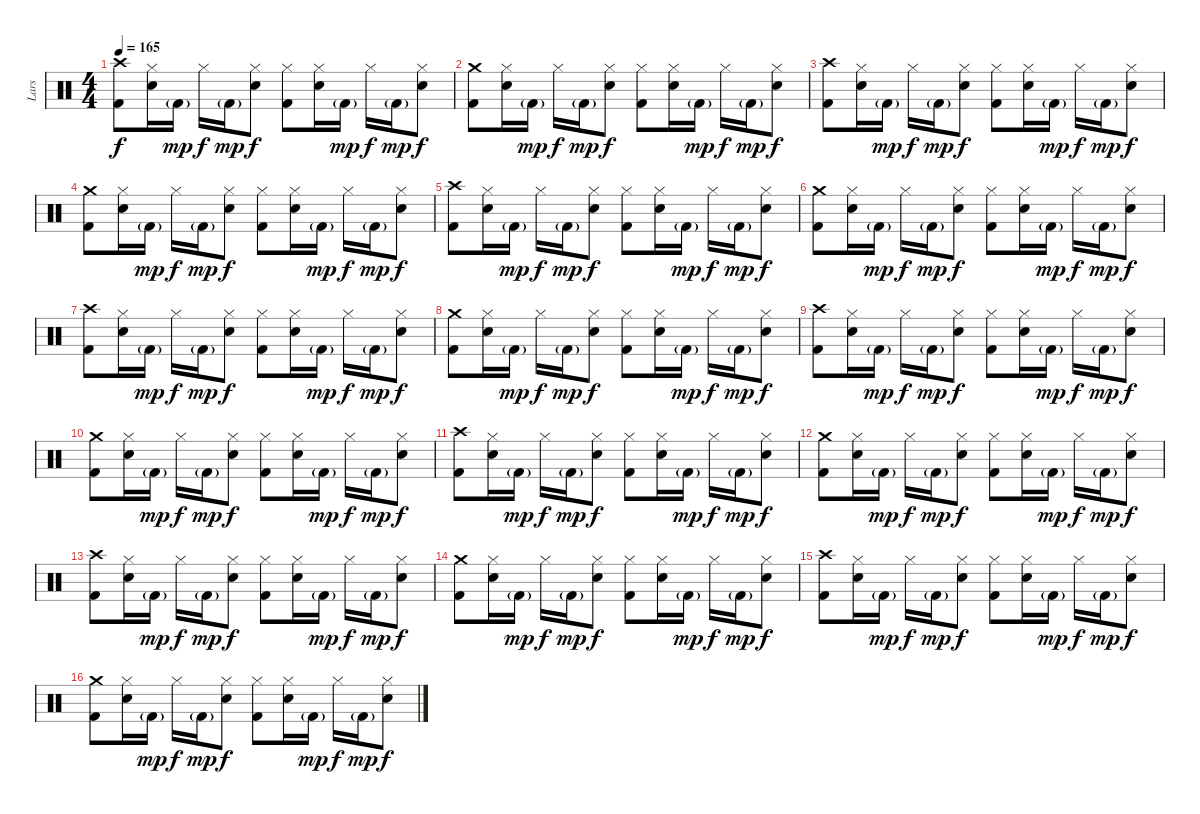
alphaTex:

\track ("Lars" "Lars") {instrument percussion}
\staff {score}
\articulation defaults
\ts (4 4)
\tempo 165
\clef neutral
\ks c
("Crash high (hit)" "Kick (hit) 2").8{dy f} ("Hi-Hat (closed)" "Snare (hit) 2").16 "Kick (hit) 2"{g}.16{dy mp} "Hi-Hat (closed)".16{dy f} "Kick (hit) 2"{g}.16{dy mp} ("Hi-Hat (closed)" "Snare (hit) 2").8{dy f} ("Hi-Hat (closed)" "Kick (hit) 2").8 ("Hi-Hat (closed)" "Snare (hit) 2").16 "Kick (hit) 2"{g}.16{dy mp} "Hi-Hat (closed)".16{dy f} "Kick (hit) 2"{g}.16{dy mp} ("Hi-Hat (closed)" "Snare (hit) 2").8{dy f} |
("Crash medium (hit)" "Kick (hit) 2").8 ("Hi-Hat (closed)" "Snare (hit) 2").16 "Kick (hit) 2"{g}.16{dy mp} "Hi-Hat (closed)".16{dy f} "Kick (hit) 2"{g}.16{dy mp} ("Hi-Hat (closed)" "Snare (hit) 2").8{dy f} ("Hi-Hat (closed)" "Kick (hit) 2").8 ("Hi-Hat (closed)" "Snare (hit) 2").16 "Kick (hit) 2"{g}.16{dy mp} "Hi-Hat (closed)".16{dy f} "Kick (hit) 2"{g}.16{dy mp} ("Hi-Hat (closed)" "Snare (hit) 2").8{dy f} |
("Crash high (hit)" "Kick (hit) 2").8 ("Hi-Hat (closed)" "Snare (hit) 2").16 "Kick (hit) 2"{g}.16{dy mp} "Hi-Hat (closed)".16{dy f} "Kick (hit) 2"{g}.16{dy mp} ("Hi-Hat (closed)" "Snare (hit) 2").8{dy f} ("Hi-Hat (closed)" "Kick (hit) 2").8 ("Hi-Hat (closed)" "Snare (hit) 2").16 "Kick (hit) 2"{g}.16{dy mp} "Hi-Hat (closed)".16{dy f} "Kick (hit) 2"{g}.16{dy mp} ("Hi-Hat (closed)" "Snare (hit) 2").8{dy f} |
("Crash medium (hit)" "Kick (hit) 2").8 ("Hi-Hat (closed)" "Snare (hit) 2").16 "Kick (hit) 2"{g}.16{dy mp} "Hi-Hat (closed)".16{dy f} "Kick (hit) 2"{g}.16{dy mp} ("Hi-Hat (closed)" "Snare (hit) 2").8{dy f} ("Hi-Hat (closed)" "Kick (hit) 2").8 ("Hi-Hat (closed)" "Snare (hit) 2").16 "Kick (hit) 2"{g}.16{dy mp} "Hi-Hat (closed)".16{dy f} "Kick (hit) 2"{g}.16{dy mp} ("Hi-Hat (closed)" "Snare (hit) 2").8{dy f} |
("Crash high (hit)" "Kick (hit) 2").8 ("Hi-Hat (closed)" "Snare (hit) 2").16 "Kick (hit) 2"{g}.16{dy mp} "Hi-Hat (closed)".16{dy f} "Kick (hit) 2"{g}.16{dy mp} ("Hi-Hat (closed)" "Snare (hit) 2").8{dy f} ("Hi-Hat (closed)" "Kick (hit) 2").8 ("Hi-Hat (closed)" "Snare (hit) 2").16 "Kick (hit) 2"{g}.16{dy mp} "Hi-Hat (closed)".16{dy f} "Kick (hit) 2"{g}.16{dy mp} ("Hi-Hat (closed)" "Snare (hit) 2").8{dy f} |
("Crash medium (hit)" "Kick (hit) 2").8 ("Hi-Hat (closed)" "Snare (hit) 2").16 "Kick (hit) 2"{g}.16{dy mp} "Hi-Hat (closed)".16{dy f} "Kick (hit) 2"{g}.16{dy mp} ("Hi-Hat (closed)" "Snare (hit) 2").8{dy f} ("Hi-Hat (closed)" "Kick (hit) 2").8 ("Hi-Hat (closed)" "Snare (hit) 2").16 "Kick (hit) 2"{g}.16{dy mp} "Hi-Hat (closed)".16{dy f} "Kick (hit) 2"{g}.16{dy mp} ("Hi-Hat (closed)" "Snare (hit) 2").8{dy f} |
("Crash high (hit)" "Kick (hit) 2").8 ("Hi-Hat (closed)" "Snare (hit) 2").16 "Kick (hit) 2"{g}.16{dy mp} "Hi-Hat (closed)".16{dy f} "Kick (hit) 2"{g}.16{dy mp} ("Hi-Hat (closed)" "Snare (hit) 2").8{dy f} ("Hi-Hat (closed)" "Kick (hit) 2").8 ("Hi-Hat (closed)" "Snare (hit) 2").16 "Kick (hit) 2"{g}.16{dy mp} "Hi-Hat (closed)".16{dy f} "Kick (hit) 2"{g}.16{dy mp} ("Hi-Hat (closed)" "Snare (hit) 2").8{dy f} |
("Crash medium (hit)" "Kick (hit) 2").8 ("Hi-Hat (closed)" "Snare (hit) 2").16 "Kick (hit) 2"{g}.16{dy mp} "Hi-Hat (closed)".16{dy f} "Kick (hit) 2"{g}.16{dy mp} ("Hi-Hat (closed)" "Snare (hit) 2").8{dy f} ("Hi-Hat (closed)" "Kick (hit) 2").8 ("Hi-Hat (closed)" "Snare (hit) 2").16 "Kick (hit) 2"{g}.16{dy mp} "Hi-Hat (closed)".16{dy f} "Kick (hit) 2"{g}.16{dy mp} ("Hi-Hat (closed)" "Snare (hit) 2").8{dy f} |
("Crash high (hit)" "Kick (hit) 2").8 ("Hi-Hat (closed)" "Snare (hit) 2").16 "Kick (hit) 2"{g}.16{dy mp} "Hi-Hat (closed)".16{dy f} "Kick (hit) 2"{g}.16{dy mp} ("Hi-Hat (closed)" "Snare (hit) 2").8{dy f} ("Hi-Hat (closed)" "Kick (hit) 2").8 ("Hi-Hat (closed)" "Snare (hit) 2").16 "Kick (hit) 2"{g}.16{dy mp} "Hi-Hat (closed)".16{dy f} "Kick (hit) 2"{g}.16{dy mp} ("Hi-Hat (closed)" "Snare (hit) 2").8{dy f} |
("Crash medium (hit)" "Kick (hit) 2").8 ("Hi-Hat (closed)" "Snare (hit) 2").16 "Kick (hit) 2"{g}.16{dy mp} "Hi-Hat (closed)".16{dy f} "Kick (hit) 2"{g}.16{dy mp} ("Hi-Hat (closed)" "Snare (hit) 2").8{dy f} ("Hi-Hat (closed)" "Kick (hit) 2").8 ("Hi-Hat (closed)" "Snare (hit) 2").16 "Kick (hit) 2"{g}.16{dy mp} "Hi-Hat (closed)".16{dy f} "Kick (hit) 2"{g}.16{dy mp} ("Hi-Hat (closed)" "Snare (hit) 2").8{dy f} |
("Crash high (hit)" "Kick (hit) 2").8 ("Hi-Hat (closed)" "Snare (hit) 2").16 "Kick (hit) 2"{g}.16{dy mp} "Hi-Hat (closed)".16{dy f} "Kick (hit) 2"{g}.16{dy mp} ("Hi-Hat (closed)" "Snare (hit) 2").8{dy f} ("Hi-Hat (closed)" "Kick (hit) 2").8 ("Hi-Hat (closed)" "Snare (hit) 2").16 "Kick (hit) 2"{g}.16{dy mp} "Hi-Hat (closed)".16{dy f} "Kick (hit) 2"{g}.16{dy mp} ("Hi-Hat (closed)" "Snare (hit) 2").8{dy f} |
("Crash medium (hit)" "Kick (hit) 2").8 ("Hi-Hat (closed)" "Snare (hit) 2").16 "Kick (hit) 2"{g}.16{dy mp} "Hi-Hat (closed)".16{dy f} "Kick (hit) 2"{g}.16{dy mp} ("Hi-Hat (closed)" "Snare (hit) 2").8{dy f} ("Hi-Hat (closed)" "Kick (hit) 2").8 ("Hi-Hat (closed)" "Snare (hit) 2").16 "Kick (hit) 2"{g}.16{dy mp} "Hi-Hat (closed)".16{dy f} "Kick (hit) 2"{g}.16{dy mp} ("Hi-Hat (closed)" "Snare (hit) 2").8{dy f} |
("Crash high (hit)" "Kick (hit) 2").8 ("Hi-Hat (closed)" "Snare (hit) 2").16 "Kick (hit) 2"{g}.16{dy mp} "Hi-Hat (closed)".16{dy f} "Kick (hit) 2"{g}.16{dy mp} ("Hi-Hat (closed)" "Snare (hit) 2").8{dy f} ("Hi-Hat (closed)" "Kick (hit) 2").8 ("Hi-Hat (closed)" "Snare (hit) 2").16 "Kick (hit) 2"{g}.16{dy mp} "Hi-Hat (closed)".16{dy f} "Kick (hit) 2"{g}.16{dy mp} ("Hi-Hat (closed)" "Snare (hit) 2").8{dy f} |
("Crash medium (hit)" "Kick (hit) 2").8 ("Hi-Hat (closed)" "Snare (hit) 2").16 "Kick (hit) 2"{g}.16{dy mp} "Hi-Hat (closed)".16{dy f} "Kick (hit) 2"{g}.16{dy mp} ("Hi-Hat (closed)" "Snare (hit) 2").8{dy f} ("Hi-Hat (closed)" "Kick (hit) 2").8 ("Hi-Hat (closed)" "Snare (hit) 2").16 "Kick (hit) 2"{g}.16{dy mp} "Hi-Hat (closed)".16{dy f} "Kick (hit) 2"{g}.16{dy mp} ("Hi-Hat (closed)" "Snare (hit) 2").8{dy f} |
("Crash high (hit)" "Kick (hit) 2").8 ("Hi-Hat (closed)" "Snare (hit) 2").16 "Kick (hit) 2"{g}.16{dy mp} "Hi-Hat (closed)".16{dy f} "Kick (hit) 2"{g}.16{dy mp} ("Hi-Hat (closed)" "Snare (hit) 2").8{dy f} ("Hi-Hat (closed)" "Kick (hit) 2").8 ("Hi-Hat (closed)" "Snare (hit) 2").16 "Kick (hit) 2"{g}.16{dy mp} "Hi-Hat (closed)".16{dy f} "Kick (hit) 2"{g}.16{dy mp} ("Hi-Hat (closed)" "Snare (hit) 2").8{dy f} |
("Crash medium (hit)" "Kick (hit) 2").8 ("Hi-Hat (closed)" "Snare (hit) 2").16 "Kick (hit) 2"{g}.16{dy mp} "Hi-Hat (closed)".16{dy f} "Kick (hit) 2"{g}.16{dy mp} ("Hi-Hat (closed)" "Snare (hit) 2").8{dy f} ("Hi-Hat (closed)" "Kick (hit) 2").8 ("Hi-Hat (closed)" "Snare (hit) 2").16 "Kick (hit) 2"{g}.16{dy mp} "Hi-Hat (closed)".16{dy f} "Kick (hit) 2"{g}.16{dy mp} ("Hi-Hat (closed)" "Snare (hit) 2").8{dy f}
